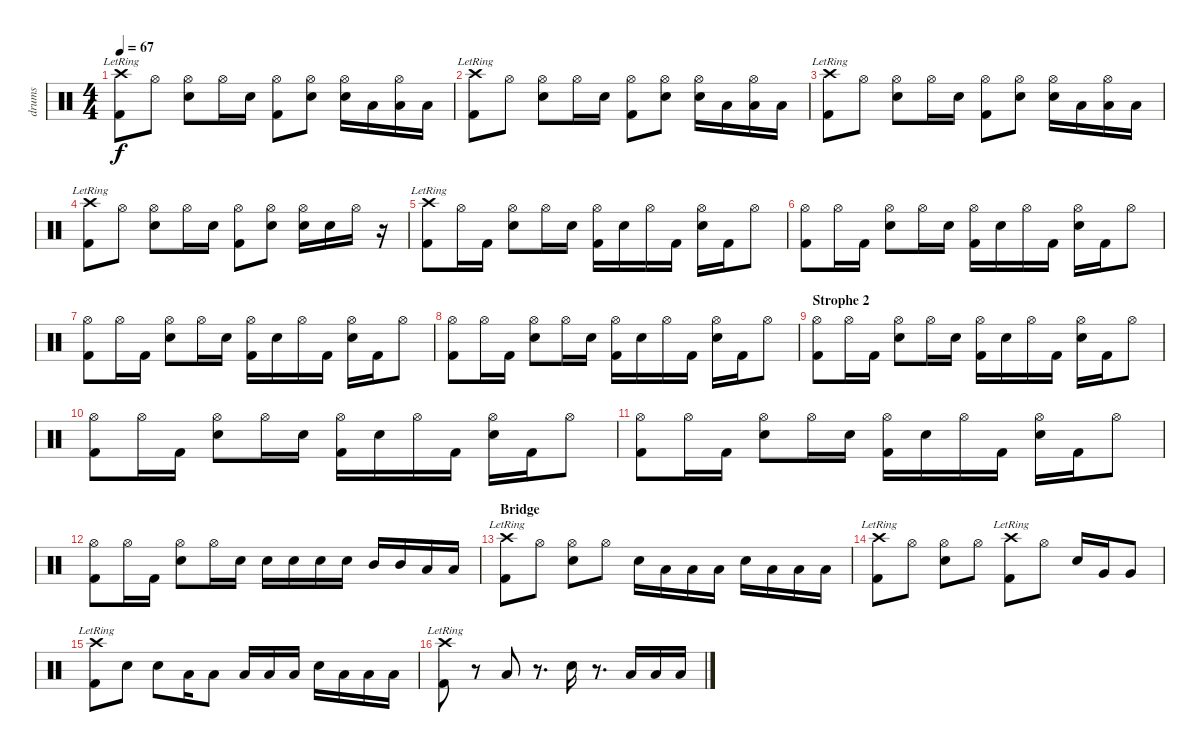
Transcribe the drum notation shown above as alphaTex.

\track ("drums" "drums") {instrument percussion}
\staff {score}
\articulation defaults
\ts (4 4)
\tempo 67
\clef neutral
\ks c
("Crash high (hit)"{lr} "Kick (hit) 2").8{dy f} "Hi-Hat (open)".8 ("Hi-Hat (open)" "Snare (hit) 2").8 "Hi-Hat (open)".16 "Snare (hit) 2".16 ("Hi-Hat (open)" "Kick (hit) 2").8 ("Hi-Hat (open)" "Snare (hit) 2").8 ("Hi-Hat (open)" "Snare (hit) 2").16 "Low Tom (hit)".16 ("Hi-Hat (open)" "Low Tom (hit)").16 "Low Tom (hit)".16 |
("Crash high (hit)"{lr} "Kick (hit) 2").8 "Hi-Hat (open)".8 ("Hi-Hat (open)" "Snare (hit) 2").8 "Hi-Hat (open)".16 "Snare (hit) 2".16 ("Hi-Hat (open)" "Kick (hit) 2").8 ("Hi-Hat (open)" "Snare (hit) 2").8 ("Hi-Hat (open)" "Snare (hit) 2").16 "Low Tom (hit)".16 ("Hi-Hat (open)" "Low Tom (hit)").16 "Low Tom (hit)".16 |
("Crash high (hit)"{lr} "Kick (hit) 2").8 "Hi-Hat (open)".8 ("Hi-Hat (open)" "Snare (hit) 2").8 "Hi-Hat (open)".16 "Snare (hit) 2".16 ("Hi-Hat (open)" "Kick (hit) 2").8 ("Hi-Hat (open)" "Snare (hit) 2").8 ("Hi-Hat (open)" "Snare (hit) 2").16 "Low Tom (hit)".16 ("Hi-Hat (open)" "Low Tom (hit)").16 "Low Tom (hit)".16 |
("Crash high (hit)"{lr} "Kick (hit) 2").8 "Hi-Hat (open)".8 ("Hi-Hat (open)" "Snare (hit) 2").8 "Hi-Hat (open)".16 "Snare (hit) 2".16 ("Hi-Hat (open)" "Kick (hit) 2").8 ("Hi-Hat (open)" "Snare (hit) 2").8 ("Hi-Hat (open)" "Snare (hit) 2").16 "Snare (hit) 2".16 "Hi-Hat (open)".16 r.16 |
("Crash high (hit)"{lr} "Kick (hit) 2").8 "Hi-Hat (open)".16 "Kick (hit) 2".16 ("Hi-Hat (open)" "Snare (hit) 2").8 "Hi-Hat (open)".16 "Snare (hit) 2".16 ("Hi-Hat (open)" "Kick (hit) 2").16 "Snare (hit) 2".16 "Hi-Hat (open)".16 "Kick (hit) 2".16 ("Hi-Hat (open)" "Snare (hit) 2").16 "Kick (hit) 2".16 "Hi-Hat (open)".8 |
("Hi-Hat (open)" "Kick (hit) 2").8 "Hi-Hat (open)".16 "Kick (hit) 2".16 ("Hi-Hat (open)" "Snare (hit) 2").8 "Hi-Hat (open)".16 "Snare (hit) 2".16 ("Hi-Hat (open)" "Kick (hit) 2").16 "Snare (hit) 2".16 "Hi-Hat (open)".16 "Kick (hit) 2".16 ("Hi-Hat (open)" "Snare (hit) 2").16 "Kick (hit) 2".16 "Hi-Hat (open)".8 |
("Hi-Hat (open)" "Kick (hit) 2").8 "Hi-Hat (open)".16 "Kick (hit) 2".16 ("Hi-Hat (open)" "Snare (hit) 2").8 "Hi-Hat (open)".16 "Snare (hit) 2".16 ("Hi-Hat (open)" "Kick (hit) 2").16 "Snare (hit) 2".16 "Hi-Hat (open)".16 "Kick (hit) 2".16 ("Hi-Hat (open)" "Snare (hit) 2").16 "Kick (hit) 2".16 "Hi-Hat (open)".8 |
("Hi-Hat (open)" "Kick (hit) 2").8 "Hi-Hat (open)".16 "Kick (hit) 2".16 ("Hi-Hat (open)" "Snare (hit) 2").8 "Hi-Hat (open)".16 "Snare (hit) 2".16 ("Hi-Hat (open)" "Kick (hit) 2").16 "Snare (hit) 2".16 "Hi-Hat (open)".16 "Kick (hit) 2".16 ("Hi-Hat (open)" "Snare (hit) 2").16 "Kick (hit) 2".16 "Hi-Hat (open)".8 |
\section ("" "Strophe 2")
("Hi-Hat (open)" "Kick (hit) 2").8 "Hi-Hat (open)".16 "Kick (hit) 2".16 ("Hi-Hat (open)" "Snare (hit) 2").8 "Hi-Hat (open)".16 "Snare (hit) 2".16 ("Hi-Hat (open)" "Kick (hit) 2").16 "Snare (hit) 2".16 "Hi-Hat (open)".16 "Kick (hit) 2".16 ("Hi-Hat (open)" "Snare (hit) 2").16 "Kick (hit) 2".16 "Hi-Hat (open)".8 |
("Hi-Hat (open)" "Kick (hit) 2").8 "Hi-Hat (open)".16 "Kick (hit) 2".16 ("Hi-Hat (open)" "Snare (hit) 2").8 "Hi-Hat (open)".16 "Snare (hit) 2".16 ("Hi-Hat (open)" "Kick (hit) 2").16 "Snare (hit) 2".16 "Hi-Hat (open)".16 "Kick (hit) 2".16 ("Hi-Hat (open)" "Snare (hit) 2").16 "Kick (hit) 2".16 "Hi-Hat (open)".8 |
("Hi-Hat (open)" "Kick (hit) 2").8 "Hi-Hat (open)".16 "Kick (hit) 2".16 ("Hi-Hat (open)" "Snare (hit) 2").8 "Hi-Hat (open)".16 "Snare (hit) 2".16 ("Hi-Hat (open)" "Kick (hit) 2").16 "Snare (hit) 2".16 "Hi-Hat (open)".16 "Kick (hit) 2".16 ("Hi-Hat (open)" "Snare (hit) 2").16 "Kick (hit) 2".16 "Hi-Hat (open)".8 |
("Hi-Hat (open)" "Kick (hit) 2").8 "Hi-Hat (open)".16 "Kick (hit) 2".16 ("Hi-Hat (open)" "Snare (hit) 2").8 "Hi-Hat (open)".16 "Snare (hit) 2".16 "Snare (hit) 2".16 "Snare (hit) 2".16 "Snare (hit) 2".16 "Snare (hit) 2".16 "Mid Tom (hit)".16 "Mid Tom (hit)".16 "Low Tom (hit)".16 "Low Tom (hit)".16 |
\section ("" "Bridge")
("Crash high (hit)"{lr} "Kick (hit) 2").8 "Hi-Hat (open)".8 ("Hi-Hat (open)" "Snare (hit) 2").8 "Hi-Hat (open)".8 "Snare (hit) 2".16 "Low Tom (hit)".16 "Low Tom (hit)".16 "Low Tom (hit)".16 "Snare (hit) 2".16 "Low Tom (hit)".16 "Low Tom (hit)".16 "Low Tom (hit)".16 |
("Crash high (hit)"{lr} "Kick (hit) 2").8 "Hi-Hat (open)".8 ("Hi-Hat (open)" "Snare (hit) 2").8 "Hi-Hat (open)".8 ("Crash high (hit)"{lr} "Kick (hit) 2").8 "Hi-Hat (open)".8 "Snare (hit) 2".16 "Very Low Tom (hit)".16 "Very Low Tom (hit)".8 |
("Crash high (hit)"{lr} "Kick (hit) 2").8 "Snare (hit) 2".8 "Snare (hit) 2".8 "Low Tom (hit)".16 "Low Tom (hit)".8 "Low Tom (hit)".16 "Low Tom (hit)".16 "Low Tom (hit)".16 "Snare (hit) 2".16 "Low Tom (hit)".16 "Low Tom (hit)".16 "Low Tom (hit)".16 |
("Crash high (hit)"{lr} "Kick (hit) 2").8 r.8 "Low Tom (hit)".8 r.8{d} "Snare (hit) 2".16 r.8{d} "Low Tom (hit)".16 "Low Tom (hit)".16 "Low Tom (hit)".16
